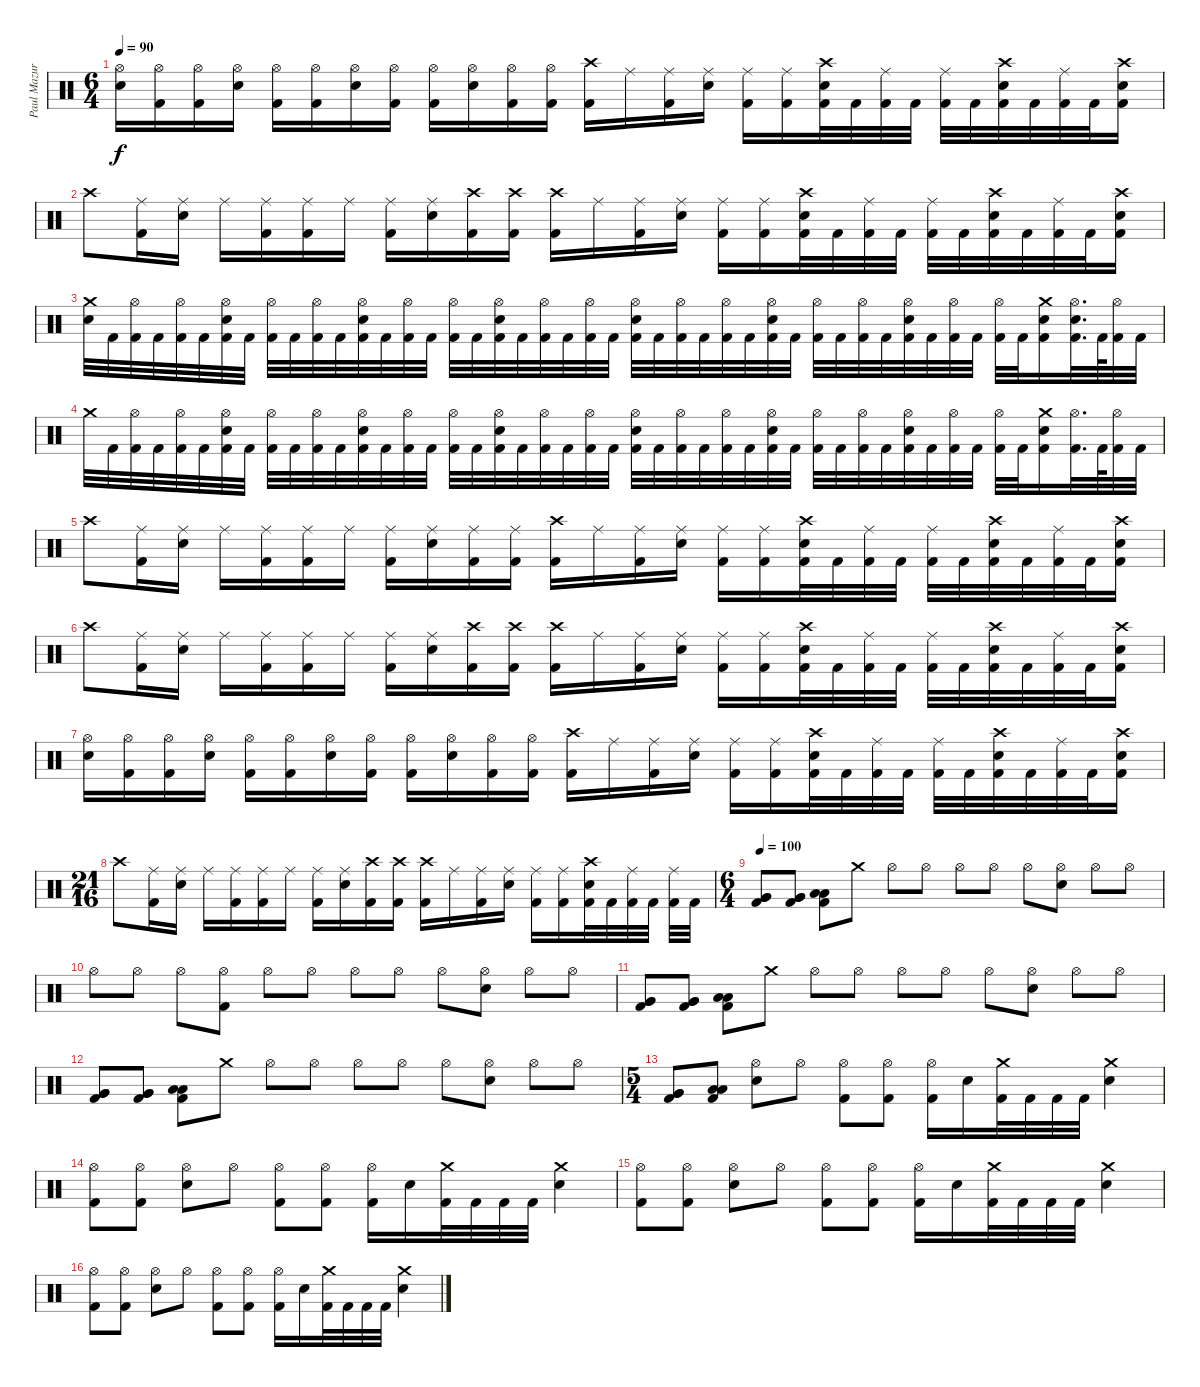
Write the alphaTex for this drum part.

\track ("Paul Mazurkiewicz" "Paul Mazur") {instrument percussion}
\staff {score}
\articulation defaults
\ts (6 4)
\tempo 90
\clef neutral
\ks c
("Hi-Hat (open)" "Electric Snare (hit)").16{dy f} ("Hi-Hat (open)" "Kick (hit) 2").16 ("Hi-Hat (open)" "Kick (hit) 2").16 ("Hi-Hat (open)" "Electric Snare (hit)").16 ("Hi-Hat (open)" "Kick (hit) 2").16 ("Hi-Hat (open)" "Kick (hit) 2").16 ("Hi-Hat (open)" "Electric Snare (hit)").16 ("Hi-Hat (open)" "Kick (hit) 2").16 ("Hi-Hat (open)" "Kick (hit) 2").16 ("Hi-Hat (open)" "Electric Snare (hit)").16 ("Hi-Hat (open)" "Kick (hit) 2").16 ("Hi-Hat (open)" "Kick (hit) 2").16 ("Crash high (hit)" "Kick (hit) 2").16 "Ride (middle)".16 ("Ride (middle)" "Kick (hit) 2").16 ("Ride (middle)" "Electric Snare (hit)").16 ("Ride (middle)" "Kick (hit) 2").16 ("Ride (middle)" "Kick (hit) 2").16 ("Crash high (hit)" "Electric Snare (hit)" "Kick (hit) 2").32 "Kick (hit) 2".32 ("Ride (middle)" "Kick (hit) 2").32 "Kick (hit) 2".32 ("Ride (middle)" "Kick (hit) 2").32 "Kick (hit) 2".32 ("Crash high (hit)" "Electric Snare (hit)" "Kick (hit) 2").32 "Kick (hit) 2".32 ("Ride (middle)" "Kick (hit) 2").32 "Kick (hit) 2".32 ("Crash high (hit)" "Electric Snare (hit)" "Kick (hit) 2").16 |
"Crash high (hit)".8 ("Ride (middle)" "Kick (hit) 2").16 ("Ride (middle)" "Electric Snare (hit)").16 "Ride (middle)".16 ("Ride (middle)" "Kick (hit) 2").16 ("Ride (middle)" "Kick (hit) 2").16 "Ride (middle)".16 ("Ride (middle)" "Kick (hit) 2").16 ("Ride (middle)" "Electric Snare (hit)").16 ("Crash high (hit)" "Kick (hit) 2").16 ("Crash high (hit)" "Kick (hit) 2").16 ("Crash high (hit)" "Kick (hit) 2").16 "Ride (middle)".16 ("Ride (middle)" "Kick (hit) 2").16 ("Ride (middle)" "Electric Snare (hit)").16 ("Ride (middle)" "Kick (hit) 2").16 ("Ride (middle)" "Kick (hit) 2").16 ("Crash high (hit)" "Electric Snare (hit)" "Kick (hit) 2").32 "Kick (hit) 2".32 ("Ride (middle)" "Kick (hit) 2").32 "Kick (hit) 2".32 ("Ride (middle)" "Kick (hit) 2").32 "Kick (hit) 2".32 ("Crash high (hit)" "Electric Snare (hit)" "Kick (hit) 2").32 "Kick (hit) 2".32 ("Ride (middle)" "Kick (hit) 2").32 "Kick (hit) 2".32 ("Crash high (hit)" "Electric Snare (hit)" "Kick (hit) 2").16 |
("Crash medium (hit)" "Electric Snare (hit)").32 "Kick (hit) 2".32 ("Hi-Hat (open)" "Kick (hit) 2").32 "Kick (hit) 2".32 ("Hi-Hat (open)" "Kick (hit) 2").32 "Kick (hit) 2".32 ("Hi-Hat (open)" "Electric Snare (hit)" "Kick (hit) 2").32 "Kick (hit) 2".32 ("Hi-Hat (open)" "Kick (hit) 2").32 "Kick (hit) 2".32 ("Hi-Hat (open)" "Kick (hit) 2").32 "Kick (hit) 2".32 ("Hi-Hat (open)" "Electric Snare (hit)" "Kick (hit) 2").32 "Kick (hit) 2".32 ("Hi-Hat (open)" "Kick (hit) 2").32 "Kick (hit) 2".32 ("Hi-Hat (open)" "Kick (hit) 2").32 "Kick (hit) 2".32 ("Hi-Hat (open)" "Electric Snare (hit)" "Kick (hit) 2").32 "Kick (hit) 2".32 ("Hi-Hat (open)" "Kick (hit) 2").32 "Kick (hit) 2".32 ("Hi-Hat (open)" "Kick (hit) 2").32 "Kick (hit) 2".32 ("Hi-Hat (open)" "Electric Snare (hit)" "Kick (hit) 2").32 "Kick (hit) 2".32 ("Hi-Hat (open)" "Kick (hit) 2").32 "Kick (hit) 2".32 ("Hi-Hat (open)" "Kick (hit) 2").32 "Kick (hit) 2".32 ("Hi-Hat (open)" "Electric Snare (hit)" "Kick (hit) 2").32 "Kick (hit) 2".32 ("Hi-Hat (open)" "Kick (hit) 2").32 "Kick (hit) 2".32 ("Hi-Hat (open)" "Kick (hit) 2").32 "Kick (hit) 2".32 ("Hi-Hat (open)" "Electric Snare (hit)" "Kick (hit) 2").32 "Kick (hit) 2".32 ("Hi-Hat (open)" "Kick (hit) 2").32 "Kick (hit) 2".32 ("Hi-Hat (open)" "Kick (hit) 2").32 "Kick (hit) 2".32 ("Crash medium (hit)" "Electric Snare (hit)" "Kick (hit) 2").16 ("Hi-Hat (open)" "Electric Snare (hit)" "Kick (hit) 2").32{d} "Kick (hit) 2".64 ("Hi-Hat (open)" "Kick (hit) 2").32 "Kick (hit) 2".32 |
"Crash medium (hit)".32 "Kick (hit) 2".32 ("Hi-Hat (open)" "Kick (hit) 2").32 "Kick (hit) 2".32 ("Hi-Hat (open)" "Kick (hit) 2").32 "Kick (hit) 2".32 ("Hi-Hat (open)" "Electric Snare (hit)" "Kick (hit) 2").32 "Kick (hit) 2".32 ("Hi-Hat (open)" "Kick (hit) 2").32 "Kick (hit) 2".32 ("Hi-Hat (open)" "Kick (hit) 2").32 "Kick (hit) 2".32 ("Hi-Hat (open)" "Electric Snare (hit)" "Kick (hit) 2").32 "Kick (hit) 2".32 ("Hi-Hat (open)" "Kick (hit) 2").32 "Kick (hit) 2".32 ("Hi-Hat (open)" "Kick (hit) 2").32 "Kick (hit) 2".32 ("Hi-Hat (open)" "Electric Snare (hit)" "Kick (hit) 2").32 "Kick (hit) 2".32 ("Hi-Hat (open)" "Kick (hit) 2").32 "Kick (hit) 2".32 ("Hi-Hat (open)" "Kick (hit) 2").32 "Kick (hit) 2".32 ("Hi-Hat (open)" "Electric Snare (hit)" "Kick (hit) 2").32 "Kick (hit) 2".32 ("Hi-Hat (open)" "Kick (hit) 2").32 "Kick (hit) 2".32 ("Hi-Hat (open)" "Kick (hit) 2").32 "Kick (hit) 2".32 ("Hi-Hat (open)" "Electric Snare (hit)" "Kick (hit) 2").32 "Kick (hit) 2".32 ("Hi-Hat (open)" "Kick (hit) 2").32 "Kick (hit) 2".32 ("Hi-Hat (open)" "Kick (hit) 2").32 "Kick (hit) 2".32 ("Hi-Hat (open)" "Electric Snare (hit)" "Kick (hit) 2").32 "Kick (hit) 2".32 ("Hi-Hat (open)" "Kick (hit) 2").32 "Kick (hit) 2".32 ("Hi-Hat (open)" "Kick (hit) 2").32 "Kick (hit) 2".32 ("Crash medium (hit)" "Electric Snare (hit)" "Kick (hit) 2").16 ("Hi-Hat (open)" "Kick (hit) 2").32{d} "Kick (hit) 2".64 ("Hi-Hat (open)" "Kick (hit) 2").32 "Kick (hit) 2".32 |
"Crash high (hit)".8 ("Ride (middle)" "Kick (hit) 2").16 ("Ride (middle)" "Electric Snare (hit)").16 "Ride (middle)".16 ("Ride (middle)" "Kick (hit) 2").16 ("Ride (middle)" "Kick (hit) 2").16 "Ride (middle)".16 ("Ride (middle)" "Kick (hit) 2").16 ("Ride (middle)" "Electric Snare (hit)").16 ("Ride (middle)" "Kick (hit) 2").16 ("Ride (middle)" "Kick (hit) 2").16 ("Crash high (hit)" "Kick (hit) 2").16 "Ride (middle)".16 ("Ride (middle)" "Kick (hit) 2").16 ("Ride (middle)" "Electric Snare (hit)").16 ("Ride (middle)" "Kick (hit) 2").16 ("Ride (middle)" "Kick (hit) 2").16 ("Crash high (hit)" "Electric Snare (hit)" "Kick (hit) 2").32 "Kick (hit) 2".32 ("Ride (middle)" "Kick (hit) 2").32 "Kick (hit) 2".32 ("Ride (middle)" "Kick (hit) 2").32 "Kick (hit) 2".32 ("Crash high (hit)" "Electric Snare (hit)" "Kick (hit) 2").32 "Kick (hit) 2".32 ("Ride (middle)" "Kick (hit) 2").32 "Kick (hit) 2".32 ("Crash high (hit)" "Electric Snare (hit)" "Kick (hit) 2").16 |
"Crash high (hit)".8 ("Ride (middle)" "Kick (hit) 2").16 ("Ride (middle)" "Electric Snare (hit)").16 "Ride (middle)".16 ("Ride (middle)" "Kick (hit) 2").16 ("Ride (middle)" "Kick (hit) 2").16 "Ride (middle)".16 ("Ride (middle)" "Kick (hit) 2").16 ("Ride (middle)" "Electric Snare (hit)").16 ("Crash high (hit)" "Kick (hit) 2").16 ("Crash high (hit)" "Kick (hit) 2").16 ("Crash high (hit)" "Kick (hit) 2").16 "Ride (middle)".16 ("Ride (middle)" "Kick (hit) 2").16 ("Ride (middle)" "Electric Snare (hit)").16 ("Ride (middle)" "Kick (hit) 2").16 ("Ride (middle)" "Kick (hit) 2").16 ("Crash high (hit)" "Electric Snare (hit)" "Kick (hit) 2").32 "Kick (hit) 2".32 ("Ride (middle)" "Kick (hit) 2").32 "Kick (hit) 2".32 ("Ride (middle)" "Kick (hit) 2").32 "Kick (hit) 2".32 ("Crash high (hit)" "Electric Snare (hit)" "Kick (hit) 2").32 "Kick (hit) 2".32 ("Ride (middle)" "Kick (hit) 2").32 "Kick (hit) 2".32 ("Crash high (hit)" "Electric Snare (hit)" "Kick (hit) 2").16 |
("Hi-Hat (open)" "Electric Snare (hit)").16 ("Hi-Hat (open)" "Kick (hit) 2").16 ("Hi-Hat (open)" "Kick (hit) 2").16 ("Hi-Hat (open)" "Electric Snare (hit)").16 ("Hi-Hat (open)" "Kick (hit) 2").16 ("Hi-Hat (open)" "Kick (hit) 2").16 ("Hi-Hat (open)" "Electric Snare (hit)").16 ("Hi-Hat (open)" "Kick (hit) 2").16 ("Hi-Hat (open)" "Kick (hit) 2").16 ("Hi-Hat (open)" "Electric Snare (hit)").16 ("Hi-Hat (open)" "Kick (hit) 2").16 ("Hi-Hat (open)" "Kick (hit) 2").16 ("Crash high (hit)" "Kick (hit) 2").16 "Ride (middle)".16 ("Ride (middle)" "Kick (hit) 2").16 ("Ride (middle)" "Electric Snare (hit)").16 ("Ride (middle)" "Kick (hit) 2").16 ("Ride (middle)" "Kick (hit) 2").16 ("Crash high (hit)" "Electric Snare (hit)" "Kick (hit) 2").32 "Kick (hit) 2".32 ("Ride (middle)" "Kick (hit) 2").32 "Kick (hit) 2".32 ("Ride (middle)" "Kick (hit) 2").32 "Kick (hit) 2".32 ("Crash high (hit)" "Electric Snare (hit)" "Kick (hit) 2").32 "Kick (hit) 2".32 ("Ride (middle)" "Kick (hit) 2").32 "Kick (hit) 2".32 ("Crash high (hit)" "Electric Snare (hit)" "Kick (hit) 2").16 |
\ts (21 16)
"Crash high (hit)".8 ("Ride (middle)" "Kick (hit) 2").16 ("Ride (middle)" "Electric Snare (hit)").16 "Ride (middle)".16 ("Ride (middle)" "Kick (hit) 2").16 ("Ride (middle)" "Kick (hit) 2").16 "Ride (middle)".16 ("Ride (middle)" "Kick (hit) 2").16 ("Ride (middle)" "Electric Snare (hit)").16 ("Crash high (hit)" "Kick (hit) 2").16 ("Crash high (hit)" "Kick (hit) 2").16 ("Crash high (hit)" "Kick (hit) 2").16 "Ride (middle)".16 ("Ride (middle)" "Kick (hit) 2").16 ("Ride (middle)" "Electric Snare (hit)").16 ("Ride (middle)" "Kick (hit) 2").16 ("Ride (middle)" "Kick (hit) 2").16 ("Crash high (hit)" "Electric Snare (hit)" "Kick (hit) 2").32 "Kick (hit) 2".32 ("Ride (middle)" "Kick (hit) 2").32 "Kick (hit) 2".32 ("Ride (middle)" "Kick (hit) 2").32 "Kick (hit) 2".32 |
\ts (6 4)
\tempo 100
("Very Low Tom (hit)" "Very Low Tom (hit)" "Kick (hit) 2").8 ("Very Low Tom (hit)" "Very Low Tom (hit)" "Kick (hit) 2").8 ("Low Floor Tom (hit)" "Low Floor Tom (hit)" "Kick (hit) 2").8 "Crash medium (hit)".8 "Hi-Hat (open)".8 "Hi-Hat (open)".8 "Hi-Hat (open)".8 "Hi-Hat (open)".8 "Hi-Hat (open)".8 ("Hi-Hat (open)" "Electric Snare (hit)").8 "Hi-Hat (open)".8 "Hi-Hat (open)".8 |
"Hi-Hat (open)".8 "Hi-Hat (open)".8 "Hi-Hat (open)".8 ("Hi-Hat (open)" "Kick (hit) 2").8 "Hi-Hat (open)".8 "Hi-Hat (open)".8 "Hi-Hat (open)".8 "Hi-Hat (open)".8 "Hi-Hat (open)".8 ("Hi-Hat (open)" "Electric Snare (hit)").8 "Hi-Hat (open)".8 "Hi-Hat (open)".8 |
("Very Low Tom (hit)" "Very Low Tom (hit)" "Kick (hit) 2").8 ("Very Low Tom (hit)" "Very Low Tom (hit)" "Kick (hit) 2").8 ("Low Floor Tom (hit)" "Low Floor Tom (hit)" "Kick (hit) 2").8 "Crash medium (hit)".8 "Hi-Hat (open)".8 "Hi-Hat (open)".8 "Hi-Hat (open)".8 "Hi-Hat (open)".8 "Hi-Hat (open)".8 ("Hi-Hat (open)" "Electric Snare (hit)").8 "Hi-Hat (open)".8 "Hi-Hat (open)".8 |
("Very Low Tom (hit)" "Very Low Tom (hit)" "Kick (hit) 2").8 ("Very Low Tom (hit)" "Very Low Tom (hit)" "Kick (hit) 2").8 ("Low Floor Tom (hit)" "Low Floor Tom (hit)" "Kick (hit) 2").8 "Crash medium (hit)".8 "Hi-Hat (open)".8 "Hi-Hat (open)".8 "Hi-Hat (open)".8 "Hi-Hat (open)".8 "Hi-Hat (open)".8 ("Hi-Hat (open)" "Electric Snare (hit)").8 "Hi-Hat (open)".8 "Hi-Hat (open)".8 |
\ts (5 4)
("Very Low Tom (hit)" "Very Low Tom (hit)" "Kick (hit) 2").8 ("Low Floor Tom (hit)" "Low Floor Tom (hit)" "Kick (hit) 2").8 ("Hi-Hat (open)" "Electric Snare (hit)").8 "Hi-Hat (open)".8 ("Hi-Hat (open)" "Kick (hit) 2").8 ("Hi-Hat (open)" "Kick (hit) 2").8 ("Hi-Hat (open)" "Kick (hit) 2").16 "Electric Snare (hit)".16 ("Crash medium (hit)" "Kick (hit) 2").32 "Kick (hit) 2".32 "Kick (hit) 2".32 "Kick (hit) 2".32 ("Crash medium (hit)" "Electric Snare (hit)").4 |
("Hi-Hat (open)" "Kick (hit) 2").8 ("Hi-Hat (open)" "Kick (hit) 2").8 ("Hi-Hat (open)" "Electric Snare (hit)").8 "Hi-Hat (open)".8 ("Hi-Hat (open)" "Kick (hit) 2").8 ("Hi-Hat (open)" "Kick (hit) 2").8 ("Hi-Hat (open)" "Kick (hit) 2").16 "Electric Snare (hit)".16 ("Crash medium (hit)" "Kick (hit) 2").32 "Kick (hit) 2".32 "Kick (hit) 2".32 "Kick (hit) 2".32 ("Crash medium (hit)" "Electric Snare (hit)").4 |
("Hi-Hat (open)" "Kick (hit) 2").8 ("Hi-Hat (open)" "Kick (hit) 2").8 ("Hi-Hat (open)" "Electric Snare (hit)").8 "Hi-Hat (open)".8 ("Hi-Hat (open)" "Kick (hit) 2").8 ("Hi-Hat (open)" "Kick (hit) 2").8 ("Hi-Hat (open)" "Kick (hit) 2").16 "Electric Snare (hit)".16 ("Crash medium (hit)" "Kick (hit) 2").32 "Kick (hit) 2".32 "Kick (hit) 2".32 "Kick (hit) 2".32 ("Crash medium (hit)" "Electric Snare (hit)").4 |
("Hi-Hat (open)" "Kick (hit) 2").8 ("Hi-Hat (open)" "Kick (hit) 2").8 ("Hi-Hat (open)" "Electric Snare (hit)").8 "Hi-Hat (open)".8 ("Hi-Hat (open)" "Kick (hit) 2").8 ("Hi-Hat (open)" "Kick (hit) 2").8 ("Hi-Hat (open)" "Kick (hit) 2").16 "Electric Snare (hit)".16 ("Crash medium (hit)" "Kick (hit) 2").32 "Kick (hit) 2".32 "Kick (hit) 2".32 "Kick (hit) 2".32 ("Crash medium (hit)" "Electric Snare (hit)").4
